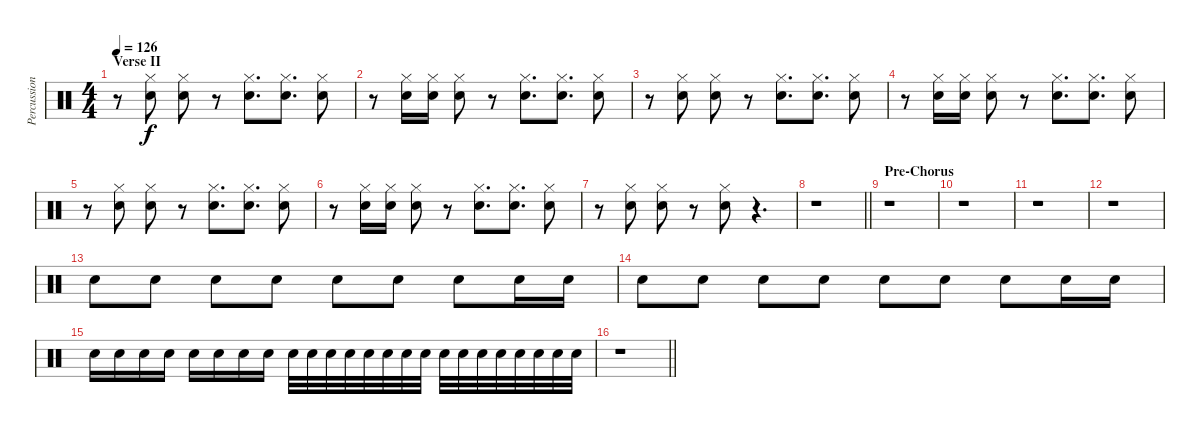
\track ("Percussion" "Percussion") {instrument percussion}
\staff {score}
\articulation defaults
\ts (4 4)
\section ("" "Verse II")
\tempo 126
\clef neutral
\ks c
r.8{dy f} ("Hi-Hat (closed)" "Snare (hit) 2").8 ("Hi-Hat (closed)" "Snare (hit) 2").8 r.8 ("Hi-Hat (closed)" "Snare (hit) 2").8{d} ("Hi-Hat (closed)" "Snare (hit) 2").8{d} ("Hi-Hat (closed)" "Snare (hit) 2").8 |
r.8 ("Hi-Hat (closed)" "Snare (hit) 2").16 ("Hi-Hat (closed)" "Snare (hit) 2").16 ("Hi-Hat (closed)" "Snare (hit) 2").8 r.8 ("Hi-Hat (closed)" "Snare (hit) 2").8{d} ("Hi-Hat (closed)" "Snare (hit) 2").8{d} ("Hi-Hat (closed)" "Snare (hit) 2").8 |
r.8 ("Hi-Hat (closed)" "Snare (hit) 2").8 ("Hi-Hat (closed)" "Snare (hit) 2").8 r.8 ("Hi-Hat (closed)" "Snare (hit) 2").8{d} ("Hi-Hat (closed)" "Snare (hit) 2").8{d} ("Hi-Hat (closed)" "Snare (hit) 2").8 |
r.8 ("Hi-Hat (closed)" "Snare (hit) 2").16 ("Hi-Hat (closed)" "Snare (hit) 2").16 ("Hi-Hat (closed)" "Snare (hit) 2").8 r.8 ("Hi-Hat (closed)" "Snare (hit) 2").8{d} ("Hi-Hat (closed)" "Snare (hit) 2").8{d} ("Hi-Hat (closed)" "Snare (hit) 2").8 |
r.8 ("Hi-Hat (closed)" "Snare (hit) 2").8 ("Hi-Hat (closed)" "Snare (hit) 2").8 r.8 ("Hi-Hat (closed)" "Snare (hit) 2").8{d} ("Hi-Hat (closed)" "Snare (hit) 2").8{d} ("Hi-Hat (closed)" "Snare (hit) 2").8 |
r.8 ("Hi-Hat (closed)" "Snare (hit) 2").16 ("Hi-Hat (closed)" "Snare (hit) 2").16 ("Hi-Hat (closed)" "Snare (hit) 2").8 r.8 ("Hi-Hat (closed)" "Snare (hit) 2").8{d} ("Hi-Hat (closed)" "Snare (hit) 2").8{d} ("Hi-Hat (closed)" "Snare (hit) 2").8 |
r.8 ("Hi-Hat (closed)" "Snare (hit) 2").8 ("Hi-Hat (closed)" "Snare (hit) 2").8 r.8 ("Hi-Hat (closed)" "Snare (hit) 2").8 r.4{d} |
\barLineRight lightlight
r.1 |
\section ("" "Pre-Chorus")
r.1 |
r.1 |
r.1 |
r.1 |
"Snare (hit) 2".8 "Snare (hit) 2".8 "Snare (hit) 2".8 "Snare (hit) 2".8 "Snare (hit) 2".8 "Snare (hit) 2".8 "Snare (hit) 2".8 "Snare (hit) 2".16 "Snare (hit) 2".16 |
"Snare (hit) 2".8 "Snare (hit) 2".8 "Snare (hit) 2".8 "Snare (hit) 2".8 "Snare (hit) 2".8 "Snare (hit) 2".8 "Snare (hit) 2".8 "Snare (hit) 2".16 "Snare (hit) 2".16 |
"Snare (hit) 2".16 "Snare (hit) 2".16 "Snare (hit) 2".16 "Snare (hit) 2".16 "Snare (hit) 2".16 "Snare (hit) 2".16 "Snare (hit) 2".16 "Snare (hit) 2".16 "Snare (hit) 2".32 "Snare (hit) 2".32 "Snare (hit) 2".32 "Snare (hit) 2".32 "Snare (hit) 2".32 "Snare (hit) 2".32 "Snare (hit) 2".32 "Snare (hit) 2".32 "Snare (hit) 2".32 "Snare (hit) 2".32 "Snare (hit) 2".32 "Snare (hit) 2".32 "Snare (hit) 2".32 "Snare (hit) 2".32 "Snare (hit) 2".32 "Snare (hit) 2".32 |
\barLineRight lightlight
r.1
